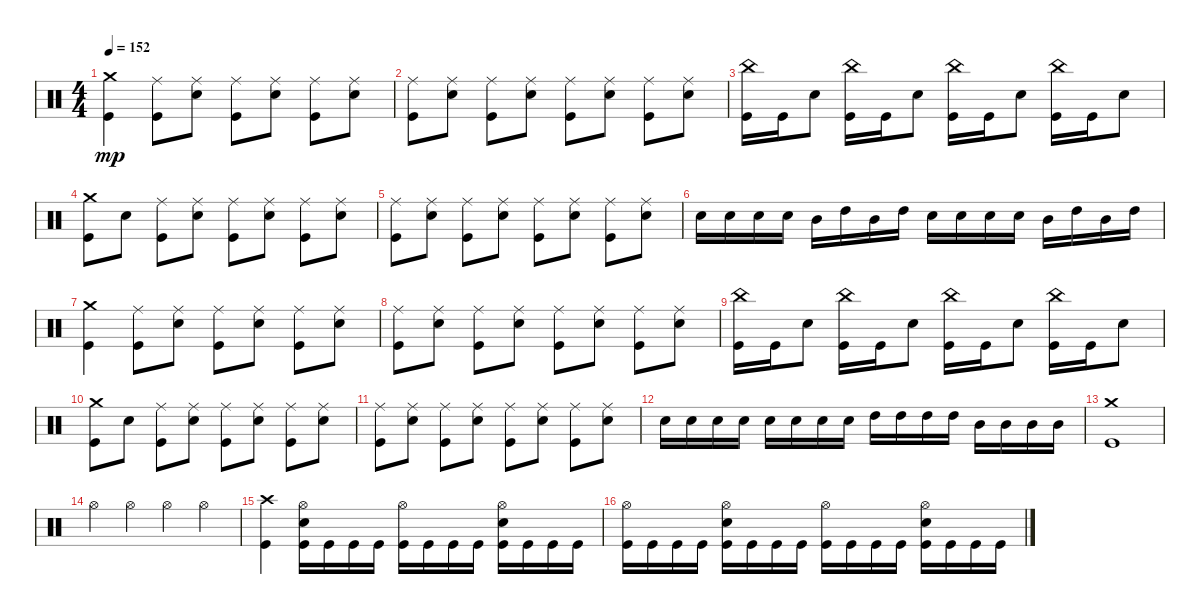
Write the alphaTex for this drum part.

\track "" {instrument percussion}
\staff {score}
\articulation defaults
\ts (4 4)
\tempo 152
\clef neutral
\ks c
("Kick (hit)" "Crash medium (hit)").4{dy mp} ("Ride (middle)" "Kick (hit)").8 ("Ride (middle)" "Snare (hit) 2").8 ("Ride (middle)" "Kick (hit)").8 ("Ride (middle)" "Snare (hit) 2").8 ("Ride (middle)" "Kick (hit)").8 ("Ride (middle)" "Snare (hit) 2").8 |
("Ride (middle)" "Kick (hit)").8 ("Ride (middle)" "Snare (hit) 2").8 ("Ride (middle)" "Kick (hit)").8 ("Ride (middle)" "Snare (hit) 2").8 ("Ride (middle)" "Kick (hit)").8 ("Ride (middle)" "Snare (hit) 2").8 ("Ride (middle)" "Kick (hit)").8 ("Ride (middle)" "Snare (hit) 2").8 |
("Kick (hit)" "China (hit)").16 "Kick (hit)".16 "Snare (hit) 2".8 ("Kick (hit)" "China (hit)").16 "Kick (hit)".16 "Snare (hit) 2".8 ("Kick (hit)" "China (hit)").16 "Kick (hit)".16 "Snare (hit) 2".8 ("Kick (hit)" "China (hit)").16 "Kick (hit)".16 "Snare (hit) 2".8 |
("Kick (hit)" "Crash medium (hit)").8 "Snare (hit) 2".8 ("Ride (middle)" "Kick (hit)").8 ("Ride (middle)" "Snare (hit) 2").8 ("Ride (middle)" "Kick (hit)").8 ("Ride (middle)" "Snare (hit) 2").8 ("Ride (middle)" "Kick (hit)").8 ("Ride (middle)" "Snare (hit) 2").8 |
("Ride (middle)" "Kick (hit)").8 ("Ride (middle)" "Snare (hit) 2").8 ("Ride (middle)" "Kick (hit)").8 ("Ride (middle)" "Snare (hit) 2").8 ("Ride (middle)" "Kick (hit)").8 ("Ride (middle)" "Snare (hit) 2").8 ("Ride (middle)" "Kick (hit)").8 ("Ride (middle)" "Snare (hit) 2").8 |
"Snare (hit) 2".16 "Snare (hit) 2".16 "Snare (hit) 2".16 "Snare (hit) 2".16 "Mid Tom (hit)".16 "High Tom (hit)".16 "Mid Tom (hit)".16 "High Tom (hit)".16 "Snare (hit) 2".16 "Snare (hit) 2".16 "Snare (hit) 2".16 "Snare (hit) 2".16 "Mid Tom (hit)".16 "High Tom (hit)".16 "Mid Tom (hit)".16 "High Tom (hit)".16 |
("Kick (hit)" "Crash medium (hit)").4 ("Ride (middle)" "Kick (hit)").8 ("Ride (middle)" "Snare (hit) 2").8 ("Ride (middle)" "Kick (hit)").8 ("Ride (middle)" "Snare (hit) 2").8 ("Ride (middle)" "Kick (hit)").8 ("Ride (middle)" "Snare (hit) 2").8 |
("Ride (middle)" "Kick (hit)").8 ("Ride (middle)" "Snare (hit) 2").8 ("Ride (middle)" "Kick (hit)").8 ("Ride (middle)" "Snare (hit) 2").8 ("Ride (middle)" "Kick (hit)").8 ("Ride (middle)" "Snare (hit) 2").8 ("Ride (middle)" "Kick (hit)").8 ("Ride (middle)" "Snare (hit) 2").8 |
("Kick (hit)" "China (hit)").16 "Kick (hit)".16 "Snare (hit) 2".8 ("Kick (hit)" "China (hit)").16 "Kick (hit)".16 "Snare (hit) 2".8 ("Kick (hit)" "China (hit)").16 "Kick (hit)".16 "Snare (hit) 2".8 ("Kick (hit)" "China (hit)").16 "Kick (hit)".16 "Snare (hit) 2".8 |
("Kick (hit)" "Crash medium (hit)").8 "Snare (hit) 2".8 ("Ride (middle)" "Kick (hit)").8 ("Ride (middle)" "Snare (hit) 2").8 ("Ride (middle)" "Kick (hit)").8 ("Ride (middle)" "Snare (hit) 2").8 ("Ride (middle)" "Kick (hit)").8 ("Ride (middle)" "Snare (hit) 2").8 |
("Ride (middle)" "Kick (hit)").8 ("Ride (middle)" "Snare (hit) 2").8 ("Ride (middle)" "Kick (hit)").8 ("Ride (middle)" "Snare (hit) 2").8 ("Ride (middle)" "Kick (hit)").8 ("Ride (middle)" "Snare (hit) 2").8 ("Ride (middle)" "Kick (hit)").8 ("Ride (middle)" "Snare (hit) 2").8 |
"Snare (hit) 2".16 "Snare (hit) 2".16 "Snare (hit) 2".16 "Snare (hit) 2".16 "Snare (hit) 2".16 "Snare (hit) 2".16 "Snare (hit) 2".16 "Snare (hit) 2".16 "High Tom (hit)".16 "High Tom (hit)".16 "High Tom (hit)".16 "High Tom (hit)".16 "Mid Tom (hit)".16 "Mid Tom (hit)".16 "Mid Tom (hit)".16 "Mid Tom (hit)".16 |
("Kick (hit)" "Crash medium (hit)").1 |
"Hi-Hat (open)".4 "Hi-Hat (open)".4 "Hi-Hat (open)".4 "Hi-Hat (open)".4 |
("Kick (hit)" "Crash high (hit)").4 ("Kick (hit)" "Snare (hit) 2" "Hi-Hat (open)").16 "Kick (hit)".16 "Kick (hit)".16 "Kick (hit)".16 ("Kick (hit)" "Hi-Hat (open)").16 "Kick (hit)".16 "Kick (hit)".16 "Kick (hit)".16 ("Kick (hit)" "Snare (hit) 2" "Hi-Hat (open)").16 "Kick (hit)".16 "Kick (hit)".16 "Kick (hit)".16 |
("Kick (hit)" "Hi-Hat (open)").16 "Kick (hit)".16 "Kick (hit)".16 "Kick (hit)".16 ("Kick (hit)" "Snare (hit) 2" "Hi-Hat (open)").16 "Kick (hit)".16 "Kick (hit)".16 "Kick (hit)".16 ("Kick (hit)" "Hi-Hat (open)").16 "Kick (hit)".16 "Kick (hit)".16 "Kick (hit)".16 ("Kick (hit)" "Snare (hit) 2" "Hi-Hat (open)").16 "Kick (hit)".16 "Kick (hit)".16 "Kick (hit)".16
